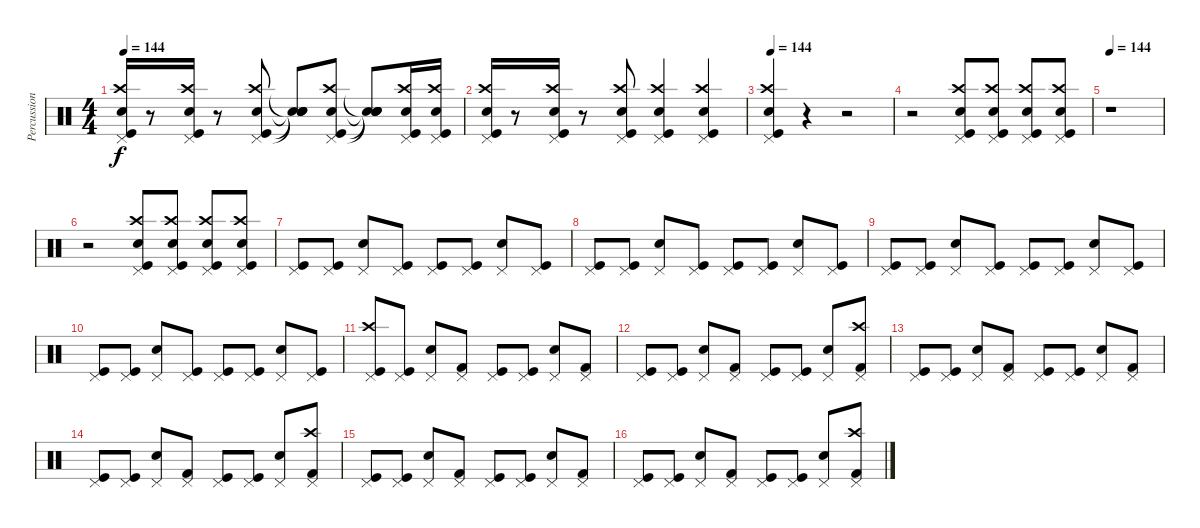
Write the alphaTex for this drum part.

\track ("Percussion" "Percussion") {instrument percussion}
\staff {score}
\articulation defaults
\ts (4 4)
\tempo 144
\clef neutral
\ks c
("Pedal Hi-Hat (hit)" "Crash high (hit)" "Kick (hit)" "Snare (hit) 2").16{dy f} r.8 ("Pedal Hi-Hat (hit)" "Crash high (hit)" "Kick (hit)" "Snare (hit) 2").16 r.8 ("Pedal Hi-Hat (hit)" "Crash high (hit)" "Kick (hit)" "Snare (hit) 2").8 ("Snare (hit)"{t} "Snare (hit)"{t} "Snare (hit)"{t} "Snare (hit)"{t}).8 ("Pedal Hi-Hat (hit)" "Crash high (hit)" "Kick (hit)" "Snare (hit) 2").8 ("Snare (hit)"{t} "Snare (hit)"{t} "Snare (hit)"{t} "Snare (hit)"{t}).8 ("Pedal Hi-Hat (hit)" "Crash high (hit)" "Kick (hit)" "Snare (hit) 2").16 ("Pedal Hi-Hat (hit)" "Crash high (hit)" "Kick (hit)" "Snare (hit) 2").16 |
("Kick (hit)" "Crash high (hit)" "Pedal Hi-Hat (hit)" "Snare (hit) 2").16 r.8 ("Kick (hit)" "Crash high (hit)" "Pedal Hi-Hat (hit)" "Snare (hit) 2").16 r.8 ("Kick (hit)" "Crash high (hit)" "Pedal Hi-Hat (hit)" "Snare (hit) 2").8 ("Pedal Hi-Hat (hit)" "Crash high (hit)" "Kick (hit)" "Snare (hit) 2").4 ("Pedal Hi-Hat (hit)" "Crash high (hit)" "Kick (hit)" "Snare (hit) 2").4 |
\tempo 144
("Pedal Hi-Hat (hit)" "Crash high (hit)" "Kick (hit)" "Snare (hit) 2").4 r.4 r.2 |
r.2 ("Crash high (hit)" "Kick (hit)" "Snare (hit) 2" "Pedal Hi-Hat (hit)").8 ("Crash high (hit)" "Kick (hit)" "Snare (hit) 2" "Pedal Hi-Hat (hit)").8 ("Crash high (hit)" "Kick (hit)" "Snare (hit) 2" "Pedal Hi-Hat (hit)").8 ("Crash high (hit)" "Kick (hit)" "Snare (hit) 2" "Pedal Hi-Hat (hit)").8 |
\tempo 144
r.1 |
r.2 ("Crash high (hit)" "Kick (hit)" "Snare (hit) 2" "Pedal Hi-Hat (hit)").8 ("Crash high (hit)" "Kick (hit)" "Snare (hit) 2" "Pedal Hi-Hat (hit)").8 ("Crash high (hit)" "Kick (hit)" "Snare (hit) 2" "Pedal Hi-Hat (hit)").8 ("Crash high (hit)" "Kick (hit)" "Snare (hit) 2" "Pedal Hi-Hat (hit)").8 |
("Pedal Hi-Hat (hit)" "Kick (hit)").8 ("Pedal Hi-Hat (hit)" "Kick (hit)").8 ("Pedal Hi-Hat (hit)" "Snare (hit) 2").8 ("Pedal Hi-Hat (hit)" "Kick (hit)").8 ("Pedal Hi-Hat (hit)" "Kick (hit)").8 ("Pedal Hi-Hat (hit)" "Kick (hit)").8 ("Pedal Hi-Hat (hit)" "Snare (hit) 2").8 ("Pedal Hi-Hat (hit)" "Kick (hit)").8 |
("Pedal Hi-Hat (hit)" "Kick (hit)").8 ("Pedal Hi-Hat (hit)" "Kick (hit)").8 ("Pedal Hi-Hat (hit)" "Snare (hit) 2").8 ("Pedal Hi-Hat (hit)" "Kick (hit)").8 ("Pedal Hi-Hat (hit)" "Kick (hit)").8 ("Pedal Hi-Hat (hit)" "Kick (hit)").8 ("Pedal Hi-Hat (hit)" "Snare (hit) 2").8 ("Pedal Hi-Hat (hit)" "Kick (hit)").8 |
("Pedal Hi-Hat (hit)" "Kick (hit)").8 ("Pedal Hi-Hat (hit)" "Kick (hit)").8 ("Pedal Hi-Hat (hit)" "Snare (hit) 2").8 ("Pedal Hi-Hat (hit)" "Kick (hit)").8 ("Pedal Hi-Hat (hit)" "Kick (hit)").8 ("Pedal Hi-Hat (hit)" "Kick (hit)").8 ("Pedal Hi-Hat (hit)" "Snare (hit) 2").8 ("Pedal Hi-Hat (hit)" "Kick (hit)").8 |
("Pedal Hi-Hat (hit)" "Kick (hit)").8 ("Pedal Hi-Hat (hit)" "Kick (hit)").8 ("Pedal Hi-Hat (hit)" "Snare (hit) 2").8 ("Pedal Hi-Hat (hit)" "Kick (hit)").8 ("Pedal Hi-Hat (hit)" "Kick (hit)").8 ("Pedal Hi-Hat (hit)" "Kick (hit)").8 ("Pedal Hi-Hat (hit)" "Snare (hit) 2").8 ("Pedal Hi-Hat (hit)" "Kick (hit)").8 |
("Pedal Hi-Hat (hit)" "Kick (hit)" "Crash high (hit)").8 ("Pedal Hi-Hat (hit)" "Kick (hit)").8 ("Pedal Hi-Hat (hit)" "Snare (hit) 2").8 ("Pedal Hi-Hat (hit)" "Kick (hit) 2").8 ("Pedal Hi-Hat (hit)" "Kick (hit)").8 ("Pedal Hi-Hat (hit)" "Kick (hit)").8 ("Pedal Hi-Hat (hit)" "Snare (hit) 2").8 ("Pedal Hi-Hat (hit)" "Kick (hit) 2").8 |
("Pedal Hi-Hat (hit)" "Kick (hit)").8 ("Pedal Hi-Hat (hit)" "Kick (hit)").8 ("Pedal Hi-Hat (hit)" "Snare (hit) 2").8 ("Pedal Hi-Hat (hit)" "Kick (hit) 2").8 ("Pedal Hi-Hat (hit)" "Kick (hit)").8 ("Pedal Hi-Hat (hit)" "Kick (hit)").8 ("Pedal Hi-Hat (hit)" "Snare (hit) 2").8 ("Pedal Hi-Hat (hit)" "Kick (hit) 2" "Crash high (hit)").8 |
("Pedal Hi-Hat (hit)" "Kick (hit)").8 ("Pedal Hi-Hat (hit)" "Kick (hit)").8 ("Pedal Hi-Hat (hit)" "Snare (hit) 2").8 ("Pedal Hi-Hat (hit)" "Kick (hit) 2").8 ("Pedal Hi-Hat (hit)" "Kick (hit)").8 ("Pedal Hi-Hat (hit)" "Kick (hit)").8 ("Pedal Hi-Hat (hit)" "Snare (hit) 2").8 ("Pedal Hi-Hat (hit)" "Kick (hit) 2").8 |
("Pedal Hi-Hat (hit)" "Kick (hit)").8 ("Pedal Hi-Hat (hit)" "Kick (hit)").8 ("Pedal Hi-Hat (hit)" "Snare (hit) 2").8 ("Pedal Hi-Hat (hit)" "Kick (hit) 2").8 ("Pedal Hi-Hat (hit)" "Kick (hit)").8 ("Pedal Hi-Hat (hit)" "Kick (hit)").8 ("Pedal Hi-Hat (hit)" "Snare (hit) 2").8 ("Pedal Hi-Hat (hit)" "Kick (hit) 2" "Crash high (hit)").8 |
("Pedal Hi-Hat (hit)" "Kick (hit)").8 ("Pedal Hi-Hat (hit)" "Kick (hit)").8 ("Pedal Hi-Hat (hit)" "Snare (hit) 2").8 ("Pedal Hi-Hat (hit)" "Kick (hit) 2").8 ("Pedal Hi-Hat (hit)" "Kick (hit)").8 ("Pedal Hi-Hat (hit)" "Kick (hit)").8 ("Pedal Hi-Hat (hit)" "Snare (hit) 2").8 ("Pedal Hi-Hat (hit)" "Kick (hit) 2").8 |
("Pedal Hi-Hat (hit)" "Kick (hit)").8 ("Pedal Hi-Hat (hit)" "Kick (hit)").8 ("Pedal Hi-Hat (hit)" "Snare (hit) 2").8 ("Pedal Hi-Hat (hit)" "Kick (hit) 2").8 ("Pedal Hi-Hat (hit)" "Kick (hit)").8 ("Pedal Hi-Hat (hit)" "Kick (hit)").8 ("Pedal Hi-Hat (hit)" "Snare (hit) 2").8 ("Pedal Hi-Hat (hit)" "Kick (hit) 2" "Crash high (hit)").8
